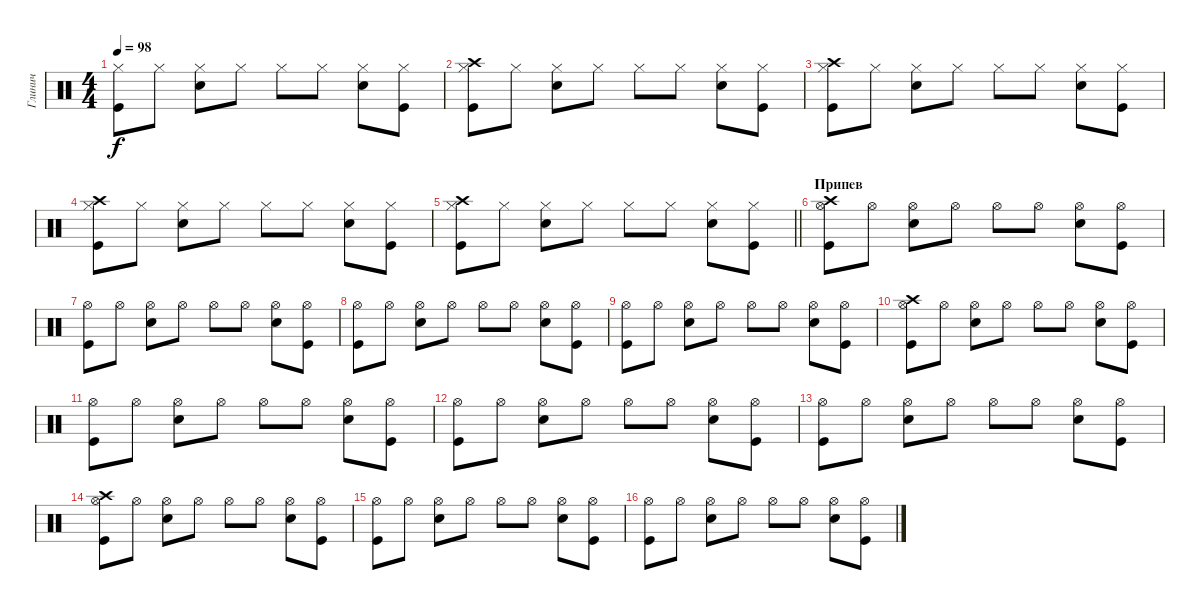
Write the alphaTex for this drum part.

\track ("Глинич" "Глинич") {instrument percussion}
\staff {score}
\articulation defaults
\ts (4 4)
\tempo 98
\clef neutral
\ks c
("Hi-Hat (closed)" "Kick (hit)").8{dy f} "Hi-Hat (closed)".8 ("Hi-Hat (closed)" "Snare (hit) 2").8 "Hi-Hat (closed)".8 "Hi-Hat (closed)".8 "Hi-Hat (closed)".8 ("Hi-Hat (closed)" "Snare (hit) 2").8 ("Hi-Hat (closed)" "Kick (hit)").8 |
("Hi-Hat (closed)" "Kick (hit)" "Crash high (hit)").8 "Hi-Hat (closed)".8 ("Hi-Hat (closed)" "Snare (hit) 2").8 "Hi-Hat (closed)".8 "Hi-Hat (closed)".8 "Hi-Hat (closed)".8 ("Hi-Hat (closed)" "Snare (hit) 2").8 ("Hi-Hat (closed)" "Kick (hit)").8 |
("Hi-Hat (closed)" "Kick (hit)" "Crash high (hit)").8 "Hi-Hat (closed)".8 ("Hi-Hat (closed)" "Snare (hit) 2").8 "Hi-Hat (closed)".8 "Hi-Hat (closed)".8 "Hi-Hat (closed)".8 ("Hi-Hat (closed)" "Snare (hit) 2").8 ("Hi-Hat (closed)" "Kick (hit)").8 |
("Hi-Hat (closed)" "Kick (hit)" "Crash high (hit)").8 "Hi-Hat (closed)".8 ("Hi-Hat (closed)" "Snare (hit) 2").8 "Hi-Hat (closed)".8 "Hi-Hat (closed)".8 "Hi-Hat (closed)".8 ("Hi-Hat (closed)" "Snare (hit) 2").8 ("Hi-Hat (closed)" "Kick (hit)").8 |
\barLineRight lightlight
("Hi-Hat (closed)" "Kick (hit)" "Crash high (hit)").8 "Hi-Hat (closed)".8 ("Hi-Hat (closed)" "Snare (hit) 2").8 "Hi-Hat (closed)".8 "Hi-Hat (closed)".8 "Hi-Hat (closed)".8 ("Hi-Hat (closed)" "Snare (hit) 2").8 ("Hi-Hat (closed)" "Kick (hit)").8 |
\section ("" "Припев")
("Hi-Hat (open)" "Kick (hit)" "Crash high (hit)").8 "Hi-Hat (open)".8 ("Hi-Hat (open)" "Snare (hit) 2").8 "Hi-Hat (open)".8 "Hi-Hat (open)".8 "Hi-Hat (open)".8 ("Hi-Hat (open)" "Snare (hit) 2").8 ("Hi-Hat (open)" "Kick (hit)").8 |
("Hi-Hat (open)" "Kick (hit)").8 "Hi-Hat (open)".8 ("Hi-Hat (open)" "Snare (hit) 2").8 "Hi-Hat (open)".8 "Hi-Hat (open)".8 "Hi-Hat (open)".8 ("Hi-Hat (open)" "Snare (hit) 2").8 ("Hi-Hat (open)" "Kick (hit)").8 |
("Hi-Hat (open)" "Kick (hit)").8 "Hi-Hat (open)".8 ("Hi-Hat (open)" "Snare (hit) 2").8 "Hi-Hat (open)".8 "Hi-Hat (open)".8 "Hi-Hat (open)".8 ("Hi-Hat (open)" "Snare (hit) 2").8 ("Hi-Hat (open)" "Kick (hit)").8 |
("Hi-Hat (open)" "Kick (hit)").8 "Hi-Hat (open)".8 ("Hi-Hat (open)" "Snare (hit) 2").8 "Hi-Hat (open)".8 "Hi-Hat (open)".8 "Hi-Hat (open)".8 ("Hi-Hat (open)" "Snare (hit) 2").8 ("Hi-Hat (open)" "Kick (hit)").8 |
("Hi-Hat (open)" "Kick (hit)" "Crash high (hit)").8 "Hi-Hat (open)".8 ("Hi-Hat (open)" "Snare (hit) 2").8 "Hi-Hat (open)".8 "Hi-Hat (open)".8 "Hi-Hat (open)".8 ("Hi-Hat (open)" "Snare (hit) 2").8 ("Hi-Hat (open)" "Kick (hit)").8 |
("Hi-Hat (open)" "Kick (hit)").8 "Hi-Hat (open)".8 ("Hi-Hat (open)" "Snare (hit) 2").8 "Hi-Hat (open)".8 "Hi-Hat (open)".8 "Hi-Hat (open)".8 ("Hi-Hat (open)" "Snare (hit) 2").8 ("Hi-Hat (open)" "Kick (hit)").8 |
("Hi-Hat (open)" "Kick (hit)").8 "Hi-Hat (open)".8 ("Hi-Hat (open)" "Snare (hit) 2").8 "Hi-Hat (open)".8 "Hi-Hat (open)".8 "Hi-Hat (open)".8 ("Hi-Hat (open)" "Snare (hit) 2").8 ("Hi-Hat (open)" "Kick (hit)").8 |
("Hi-Hat (open)" "Kick (hit)").8 "Hi-Hat (open)".8 ("Hi-Hat (open)" "Snare (hit) 2").8 "Hi-Hat (open)".8 "Hi-Hat (open)".8 "Hi-Hat (open)".8 ("Hi-Hat (open)" "Snare (hit) 2").8 ("Hi-Hat (open)" "Kick (hit)").8 |
("Hi-Hat (open)" "Kick (hit)" "Crash high (hit)").8 "Hi-Hat (open)".8 ("Hi-Hat (open)" "Snare (hit) 2").8 "Hi-Hat (open)".8 "Hi-Hat (open)".8 "Hi-Hat (open)".8 ("Hi-Hat (open)" "Snare (hit) 2").8 ("Hi-Hat (open)" "Kick (hit)").8 |
("Hi-Hat (open)" "Kick (hit)").8 "Hi-Hat (open)".8 ("Hi-Hat (open)" "Snare (hit) 2").8 "Hi-Hat (open)".8 "Hi-Hat (open)".8 "Hi-Hat (open)".8 ("Hi-Hat (open)" "Snare (hit) 2").8 ("Hi-Hat (open)" "Kick (hit)").8 |
("Hi-Hat (open)" "Kick (hit)").8 "Hi-Hat (open)".8 ("Hi-Hat (open)" "Snare (hit) 2").8 "Hi-Hat (open)".8 "Hi-Hat (open)".8 "Hi-Hat (open)".8 ("Hi-Hat (open)" "Snare (hit) 2").8 ("Hi-Hat (open)" "Kick (hit)").8
